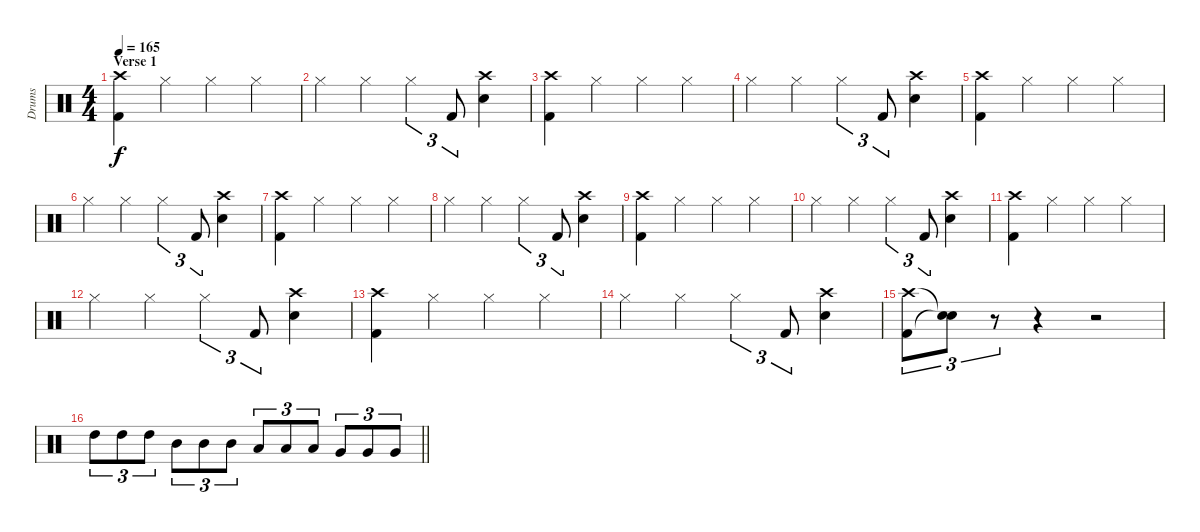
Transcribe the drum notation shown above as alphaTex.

\track ("Drums" "Drums") {instrument percussion}
\staff {score}
\articulation defaults
\ts (4 4)
\section ("" "Verse 1")
\tempo 165
\clef neutral
\ks c
("Kick (hit) 2" "Crash high (hit)").4{dy f} "Hi-Hat (closed)".4 "Hi-Hat (closed)".4 "Hi-Hat (closed)".4 |
"Hi-Hat (closed)".4 "Hi-Hat (closed)".4 "Hi-Hat (closed)".4{tu (3 2)} "Kick (hit) 2".8{tu (3 2)} ("Snare (hit) 2" "Crash high (hit)").4 |
("Kick (hit) 2" "Crash high (hit)").4 "Hi-Hat (closed)".4 "Hi-Hat (closed)".4 "Hi-Hat (closed)".4 |
"Hi-Hat (closed)".4 "Hi-Hat (closed)".4 "Hi-Hat (closed)".4{tu (3 2)} "Kick (hit) 2".8{tu (3 2)} ("Snare (hit) 2" "Crash high (hit)").4 |
("Kick (hit) 2" "Crash high (hit)").4 "Hi-Hat (closed)".4 "Hi-Hat (closed)".4 "Hi-Hat (closed)".4 |
"Hi-Hat (closed)".4 "Hi-Hat (closed)".4 "Hi-Hat (closed)".4{tu (3 2)} "Kick (hit) 2".8{tu (3 2)} ("Snare (hit) 2" "Crash high (hit)").4 |
("Kick (hit) 2" "Crash high (hit)").4 "Hi-Hat (closed)".4 "Hi-Hat (closed)".4 "Hi-Hat (closed)".4 |
"Hi-Hat (closed)".4 "Hi-Hat (closed)".4 "Hi-Hat (closed)".4{tu (3 2)} "Kick (hit) 2".8{tu (3 2)} ("Snare (hit) 2" "Crash high (hit)").4 |
("Kick (hit) 2" "Crash high (hit)").4 "Hi-Hat (closed)".4 "Hi-Hat (closed)".4 "Hi-Hat (closed)".4 |
"Hi-Hat (closed)".4 "Hi-Hat (closed)".4 "Hi-Hat (closed)".4{tu (3 2)} "Kick (hit) 2".8{tu (3 2)} ("Snare (hit) 2" "Crash high (hit)").4 |
("Kick (hit) 2" "Crash high (hit)").4 "Hi-Hat (closed)".4 "Hi-Hat (closed)".4 "Hi-Hat (closed)".4 |
"Hi-Hat (closed)".4 "Hi-Hat (closed)".4 "Hi-Hat (closed)".4{tu (3 2)} "Kick (hit) 2".8{tu (3 2)} ("Snare (hit) 2" "Crash high (hit)").4 |
("Kick (hit) 2" "Crash high (hit)").4 "Hi-Hat (closed)".4 "Hi-Hat (closed)".4 "Hi-Hat (closed)".4 |
"Hi-Hat (closed)".4 "Hi-Hat (closed)".4 "Hi-Hat (closed)".4{tu (3 2)} "Kick (hit) 2".8{tu (3 2)} ("Snare (hit) 2" "Crash high (hit)").4 |
("Kick (hit) 2" "Crash high (hit)").8{tu (3 2)} ("Snare (hit)"{t} "Snare (hit)"{t}).8{tu (3 2)} r.8{tu (3 2)} r.4 r.2 |
\barLineRight lightlight "High Tom (hit)".8{tu (3 2)} "High Tom (hit)".8{tu (3 2)} "High Tom (hit)".8{tu (3 2)} "Mid Tom (hit)".8{tu (3 2)} "Mid Tom (hit)".8{tu (3 2)} "Mid Tom (hit)".8{tu (3 2)} "Low Tom (hit)".8{tu (3 2)} "Low Tom (hit)".8{tu (3 2)} "Low Tom (hit)".8{tu (3 2)} "Very Low Tom (hit)".8{tu (3 2)} "Very Low Tom (hit)".8{tu (3 2)} "Very Low Tom (hit)".8{tu (3 2)}
